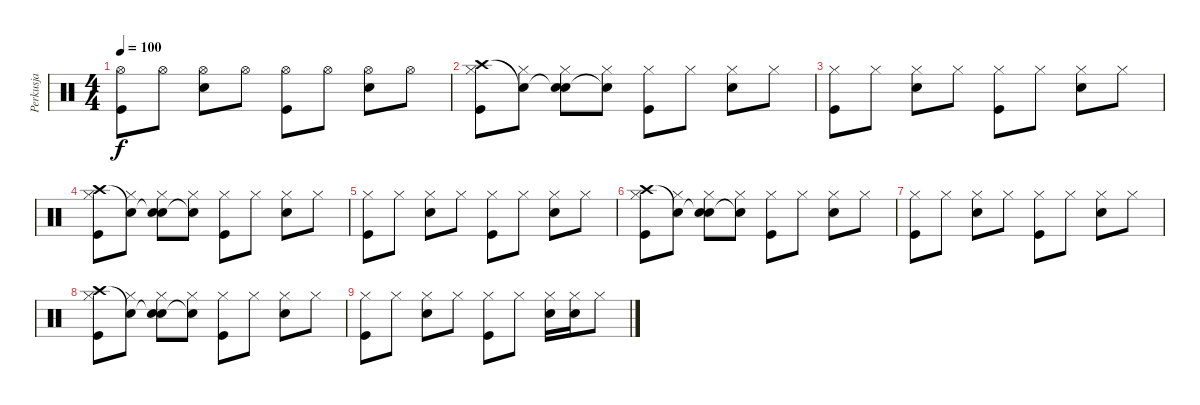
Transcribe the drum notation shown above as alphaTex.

\track ("Perkusja" "Perkusja") {instrument percussion}
\staff {score}
\articulation defaults
\ts (4 4)
\tempo 100
\clef neutral
\ks c
("Hi-Hat (open)" "Kick (hit)").8{dy f} "Hi-Hat (open)".8 ("Hi-Hat (open)" "Metronome (bell)").8 "Hi-Hat (open)".8 ("Hi-Hat (open)" "Kick (hit)").8 "Hi-Hat (open)".8 ("Hi-Hat (open)" "Metronome (bell)").8 "Hi-Hat (open)".8 |
("Hi-Hat (closed)" "Crash high (hit)" "Kick (hit)").8 ("Hi-Hat (closed)" "Snare (hit)"{t}).8 ("Hi-Hat (closed)" "Snare (hit)"{t} "Metronome (bell)").8 ("Hi-Hat (closed)" "Snare (hit)"{t}).8 ("Hi-Hat (closed)" "Kick (hit)").8 "Hi-Hat (closed)".8 ("Hi-Hat (closed)" "Metronome (bell)").8 "Hi-Hat (closed)".8 |
("Hi-Hat (closed)" "Kick (hit)").8 "Hi-Hat (closed)".8 ("Hi-Hat (closed)" "Metronome (bell)").8 "Hi-Hat (closed)".8 ("Hi-Hat (closed)" "Kick (hit)").8 "Hi-Hat (closed)".8 ("Hi-Hat (closed)" "Metronome (bell)").8 "Hi-Hat (closed)".8 |
("Hi-Hat (closed)" "Crash high (hit)" "Kick (hit)").8 ("Hi-Hat (closed)" "Snare (hit)"{t}).8 ("Hi-Hat (closed)" "Snare (hit)"{t} "Metronome (bell)").8 ("Hi-Hat (closed)" "Snare (hit)"{t}).8 ("Hi-Hat (closed)" "Kick (hit)").8 "Hi-Hat (closed)".8 ("Hi-Hat (closed)" "Metronome (bell)").8 "Hi-Hat (closed)".8 |
("Hi-Hat (closed)" "Kick (hit)").8 "Hi-Hat (closed)".8 ("Hi-Hat (closed)" "Metronome (bell)").8 "Hi-Hat (closed)".8 ("Hi-Hat (closed)" "Kick (hit)").8 "Hi-Hat (closed)".8 ("Hi-Hat (closed)" "Metronome (bell)").8 "Hi-Hat (closed)".8 |
("Hi-Hat (closed)" "Crash high (hit)" "Kick (hit)").8 ("Hi-Hat (closed)" "Snare (hit)"{t}).8 ("Hi-Hat (closed)" "Snare (hit)"{t} "Metronome (bell)").8 ("Hi-Hat (closed)" "Snare (hit)"{t}).8 ("Hi-Hat (closed)" "Kick (hit)").8 "Hi-Hat (closed)".8 ("Hi-Hat (closed)" "Metronome (bell)").8 "Hi-Hat (closed)".8 |
("Hi-Hat (closed)" "Kick (hit)").8 "Hi-Hat (closed)".8 ("Hi-Hat (closed)" "Metronome (bell)").8 "Hi-Hat (closed)".8 ("Hi-Hat (closed)" "Kick (hit)").8 "Hi-Hat (closed)".8 ("Hi-Hat (closed)" "Metronome (bell)").8 "Hi-Hat (closed)".8 |
("Hi-Hat (closed)" "Crash high (hit)" "Kick (hit)").8 ("Hi-Hat (closed)" "Snare (hit)"{t}).8 ("Hi-Hat (closed)" "Snare (hit)"{t} "Metronome (bell)").8 ("Hi-Hat (closed)" "Snare (hit)"{t}).8 ("Hi-Hat (closed)" "Kick (hit)").8 "Hi-Hat (closed)".8 ("Hi-Hat (closed)" "Metronome (bell)").8 "Hi-Hat (closed)".8 |
("Hi-Hat (closed)" "Kick (hit)").8 "Hi-Hat (closed)".8 ("Hi-Hat (closed)" "Metronome (bell)").8 "Hi-Hat (closed)".8 ("Hi-Hat (closed)" "Kick (hit)").8 "Hi-Hat (closed)".8 ("Hi-Hat (closed)" "Metronome (bell)").16 ("Hi-Hat (closed)" "Metronome (bell)").16 "Hi-Hat (closed)".8
